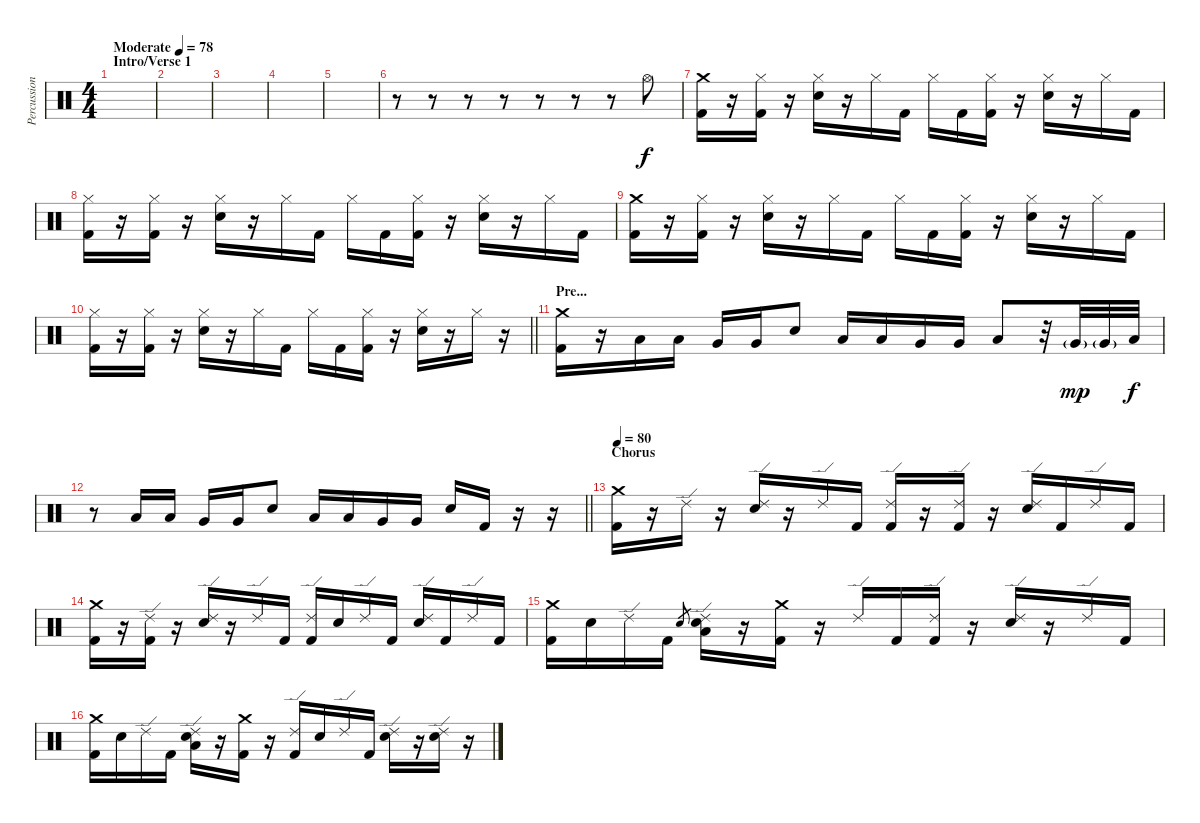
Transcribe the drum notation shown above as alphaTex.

\track ("Percussion (Phillips)" "Percussion") {instrument percussion}
\staff {score}
\articulation defaults
\ts (4 4)
\section ("" "Intro/Verse 1")
\tempo (78 "Moderate")
\clef neutral
\ks c
|
|
|
|
|
r.8 r.8 r.8 r.8 r.8 r.8 r.8 "Hi-Hat (open)".8 |
("Crash medium (hit)" "Kick (hit) 2").16 r.16 ("Hi-Hat (closed)" "Kick (hit) 2").16 r.16 ("Hi-Hat (closed)" "Electric Snare (hit)").16 r.16 "Hi-Hat (closed)".16 "Kick (hit) 2".16 "Hi-Hat (closed)".16 "Kick (hit) 2".16 ("Hi-Hat (closed)" "Kick (hit) 2").16 r.16 ("Hi-Hat (closed)" "Electric Snare (hit)").16 r.16 "Hi-Hat (closed)".16 "Kick (hit) 2".16 |
("Hi-Hat (closed)" "Kick (hit) 2").16 r.16 ("Hi-Hat (closed)" "Kick (hit) 2").16 r.16 ("Hi-Hat (closed)" "Electric Snare (hit)").16 r.16 "Hi-Hat (closed)".16 "Kick (hit) 2".16 "Hi-Hat (closed)".16 "Kick (hit) 2".16 ("Hi-Hat (closed)" "Kick (hit) 2").16 r.16 ("Hi-Hat (closed)" "Electric Snare (hit)").16 r.16 "Hi-Hat (closed)".16 "Kick (hit) 2".16 |
("Crash medium (hit)" "Kick (hit) 2").16 r.16 ("Hi-Hat (closed)" "Kick (hit) 2").16 r.16 ("Hi-Hat (closed)" "Electric Snare (hit)").16 r.16 "Hi-Hat (closed)".16 "Kick (hit) 2".16 "Hi-Hat (closed)".16 "Kick (hit) 2".16 ("Hi-Hat (closed)" "Kick (hit) 2").16 r.16 ("Hi-Hat (closed)" "Electric Snare (hit)").16 r.16 "Hi-Hat (closed)".16 "Kick (hit) 2".16 |
\barLineRight lightlight
("Hi-Hat (closed)" "Kick (hit) 2").16 r.16 ("Hi-Hat (closed)" "Kick (hit) 2").16 r.16 ("Hi-Hat (closed)" "Electric Snare (hit)").16 r.16 "Hi-Hat (closed)".16 "Kick (hit) 2".16 "Hi-Hat (closed)".16 "Kick (hit) 2".16 ("Hi-Hat (closed)" "Kick (hit) 2").16 r.16 ("Hi-Hat (closed)" "Electric Snare (hit)").16 r.16 "Hi-Hat (closed)".16 r.16 |
\section ("" "Pre...")
("Crash medium (hit)" "Kick (hit) 2").16 r.16 "Low Tom (hit)".16 "Low Tom (hit)".16 "Very Low Tom (hit)".16 "Very Low Tom (hit)".16 "Electric Snare (hit)".8 "Low Tom (hit)".16 "Low Tom (hit)".16 "Very Low Tom (hit)".16 "Very Low Tom (hit)".16 "Low Tom (hit)".8 r.32 "Very Low Tom (hit)"{g}.32{dy mp} "Very Low Tom (hit)"{g}.32 "Low Tom (hit)".32{dy f} |
\barLineRight lightlight
r.8 "Low Tom (hit)".16 "Low Tom (hit)".16 "Very Low Tom (hit)".16 "Very Low Tom (hit)".16 "Electric Snare (hit)".8 "Low Tom (hit)".16 "Low Tom (hit)".16 "Very Low Tom (hit)".16 "Very Low Tom (hit)".16 "Electric Snare (hit)".16 "Kick (hit) 2".16 r.16 r.16 |
\section ("" "Chorus")
\tempo 80
("Crash medium (hit)" "Kick (hit) 2").16 r.16 "Ride (edge) 2".16 r.16 ("Ride (edge) 2" "Electric Snare (hit)").16 r.16 "Ride (edge) 2".16 "Kick (hit) 2".16 ("Ride (edge) 2" "Kick (hit) 2").16 r.16 ("Ride (edge) 2" "Kick (hit) 2").16 r.16 ("Ride (edge) 2" "Electric Snare (hit)").16 "Kick (hit) 2".16 "Ride (edge) 2".16 "Kick (hit) 2".16 |
("Crash medium (hit)" "Kick (hit) 2").16 r.16 ("Ride (edge) 2" "Kick (hit) 2").16 r.16 ("Ride (edge) 2" "Electric Snare (hit)").16 r.16 "Ride (edge) 2".16 "Kick (hit) 2".16 ("Ride (edge) 2" "Kick (hit) 2").16 "Electric Snare (hit)".16 "Ride (edge) 2".16 "Kick (hit) 2".16 ("Ride (edge) 2" "Electric Snare (hit)").16 "Kick (hit) 2".16 "Ride (edge) 2".16 "Kick (hit) 2".16 |
("Crash medium (hit)" "Kick (hit) 2").16 "Electric Snare (hit)".16 "Ride (edge) 2".16 "Kick (hit) 2".16 "Electric Snare (hit)".8{gr} ("Low Tom (hit)" "Ride (edge) 2" "Electric Snare (hit)").16 r.16 ("Crash medium (hit)" "Kick (hit) 2").16 r.16 "Ride (edge) 2".16 "Kick (hit) 2".16 ("Ride (edge) 2" "Kick (hit) 2").16 r.16 ("Ride (edge) 2" "Electric Snare (hit)").16 r.16 "Ride (edge) 2".16 "Kick (hit) 2".16 |
("Crash medium (hit)" "Kick (hit) 2").16 "Electric Snare (hit)".16 "Ride (edge) 2".16 "Kick (hit) 2".16 ("Low Tom (hit)" "Ride (edge) 2" "Electric Snare (hit)").16 r.16 ("Crash medium (hit)" "Kick (hit) 2").16 r.16 ("Ride (edge) 2" "Kick (hit) 2").16 "Electric Snare (hit)".16 "Ride (edge) 2".16 "Kick (hit) 2".16 ("Ride (edge) 2" "Electric Snare (hit)").16 r.16 ("Ride (edge) 2" "Electric Snare (hit)").16 r.16
